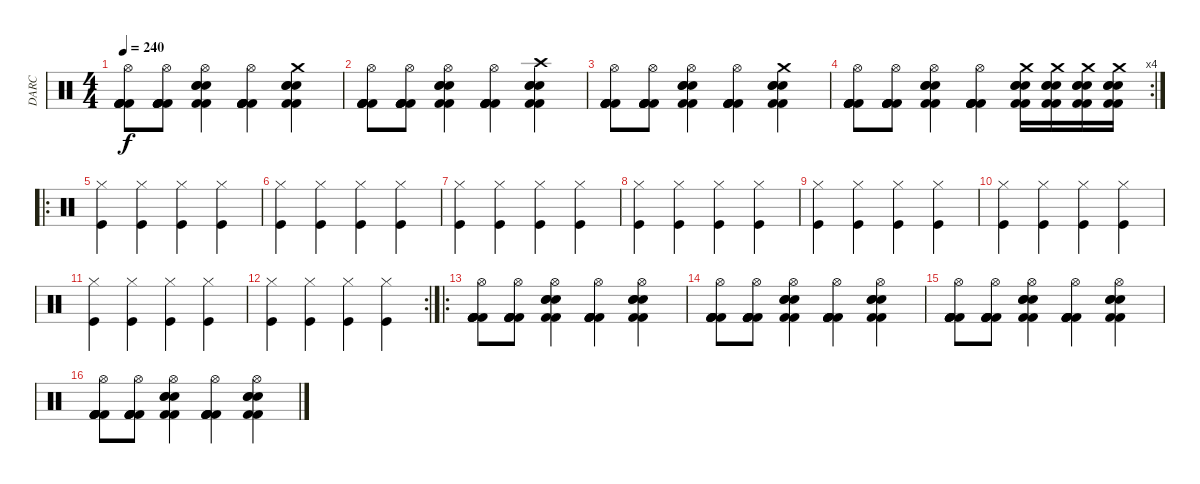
\track ("DARC" "DARC") {instrument percussion}
\staff {score}
\articulation defaults
\ts (4 4)
\tempo 240
\clef neutral
\ks c
("Hi-Hat (open)" "Kick (hit) 2" "Kick (hit) 2" "Kick (hit) 2" "Kick (hit) 2" "Kick (hit) 2").8{dy f} ("Hi-Hat (open)" "Kick (hit) 2" "Kick (hit) 2" "Kick (hit) 2" "Kick (hit) 2" "Kick (hit) 2").8 ("Hi-Hat (open)" "Electric Snare (hit)" "Electric Snare (hit)" "Kick (hit) 2" "Kick (hit) 2" "Electric Snare (hit)").4 ("Hi-Hat (open)" "Kick (hit) 2" "Kick (hit) 2" "Kick (hit) 2" "Kick (hit) 2" "Kick (hit) 2").4 ("Crash medium (hit)" "Electric Snare (hit)" "Electric Snare (hit)" "Kick (hit) 2" "Kick (hit) 2" "Electric Snare (hit)").4 |
("Hi-Hat (open)" "Kick (hit) 2" "Kick (hit) 2" "Kick (hit) 2" "Kick (hit) 2" "Kick (hit) 2").8 ("Hi-Hat (open)" "Kick (hit) 2" "Kick (hit) 2" "Kick (hit) 2" "Kick (hit) 2" "Kick (hit) 2").8 ("Hi-Hat (open)" "Electric Snare (hit)" "Electric Snare (hit)" "Kick (hit) 2" "Kick (hit) 2" "Electric Snare (hit)").4 ("Hi-Hat (open)" "Kick (hit) 2" "Kick (hit) 2" "Kick (hit) 2" "Kick (hit) 2" "Kick (hit) 2").4 ("Crash high (hit)" "Electric Snare (hit)" "Electric Snare (hit)" "Kick (hit) 2" "Kick (hit) 2" "Electric Snare (hit)").4 |
("Hi-Hat (open)" "Kick (hit) 2" "Kick (hit) 2" "Kick (hit) 2" "Kick (hit) 2" "Kick (hit) 2").8 ("Hi-Hat (open)" "Kick (hit) 2" "Kick (hit) 2" "Kick (hit) 2" "Kick (hit) 2" "Kick (hit) 2").8 ("Hi-Hat (open)" "Electric Snare (hit)" "Electric Snare (hit)" "Kick (hit) 2" "Kick (hit) 2" "Electric Snare (hit)").4 ("Hi-Hat (open)" "Kick (hit) 2" "Kick (hit) 2" "Kick (hit) 2" "Kick (hit) 2" "Kick (hit) 2").4 ("Crash medium (hit)" "Electric Snare (hit)" "Electric Snare (hit)" "Kick (hit) 2" "Kick (hit) 2" "Electric Snare (hit)").4 |
\rc 4
("Hi-Hat (open)" "Kick (hit) 2" "Kick (hit) 2" "Kick (hit) 2" "Kick (hit) 2" "Kick (hit) 2").8 ("Hi-Hat (open)" "Kick (hit) 2" "Kick (hit) 2" "Kick (hit) 2" "Kick (hit) 2" "Kick (hit) 2").8 ("Hi-Hat (open)" "Electric Snare (hit)" "Electric Snare (hit)" "Kick (hit) 2" "Kick (hit) 2" "Electric Snare (hit)").4 ("Hi-Hat (open)" "Kick (hit) 2" "Kick (hit) 2" "Kick (hit) 2" "Kick (hit) 2" "Kick (hit) 2").4 ("Crash medium (hit)" "Electric Snare (hit)" "Electric Snare (hit)" "Kick (hit) 2" "Kick (hit) 2" "Electric Snare (hit)").16 ("Crash medium (hit)" "Electric Snare (hit)" "Electric Snare (hit)" "Kick (hit) 2" "Kick (hit) 2" "Electric Snare (hit)").16 ("Crash medium (hit)" "Electric Snare (hit)" "Electric Snare (hit)" "Kick (hit) 2" "Kick (hit) 2" "Electric Snare (hit)").16 ("Crash medium (hit)" "Electric Snare (hit)" "Electric Snare (hit)" "Kick (hit) 2" "Kick (hit) 2" "Electric Snare (hit)").16 |
\ro
("Kick (hit)" "Hi-Hat (closed)").4 ("Kick (hit)" "Hi-Hat (closed)").4 ("Kick (hit)" "Hi-Hat (closed)").4 ("Kick (hit)" "Hi-Hat (closed)").4 |
("Kick (hit)" "Hi-Hat (closed)").4 ("Kick (hit)" "Hi-Hat (closed)").4 ("Kick (hit)" "Hi-Hat (closed)").4 ("Kick (hit)" "Hi-Hat (closed)").4 |
("Kick (hit)" "Hi-Hat (closed)").4 ("Kick (hit)" "Hi-Hat (closed)").4 ("Kick (hit)" "Hi-Hat (closed)").4 ("Kick (hit)" "Hi-Hat (closed)").4 |
("Kick (hit)" "Hi-Hat (closed)").4 ("Kick (hit)" "Hi-Hat (closed)").4 ("Kick (hit)" "Hi-Hat (closed)").4 ("Kick (hit)" "Hi-Hat (closed)").4 |
("Kick (hit)" "Hi-Hat (closed)").4 ("Kick (hit)" "Hi-Hat (closed)").4 ("Kick (hit)" "Hi-Hat (closed)").4 ("Kick (hit)" "Hi-Hat (closed)").4 |
("Kick (hit)" "Hi-Hat (closed)").4 ("Kick (hit)" "Hi-Hat (closed)").4 ("Kick (hit)" "Hi-Hat (closed)").4 ("Kick (hit)" "Hi-Hat (closed)").4 |
("Kick (hit)" "Hi-Hat (closed)").4 ("Kick (hit)" "Hi-Hat (closed)").4 ("Kick (hit)" "Hi-Hat (closed)").4 ("Kick (hit)" "Hi-Hat (closed)").4 |
\rc 2
("Kick (hit)" "Hi-Hat (closed)").4 ("Kick (hit)" "Hi-Hat (closed)").4 ("Kick (hit)" "Hi-Hat (closed)").4 ("Kick (hit)" "Hi-Hat (closed)").4 |
\ro
("Hi-Hat (open)" "Kick (hit) 2" "Kick (hit) 2" "Kick (hit) 2" "Kick (hit) 2" "Kick (hit) 2").8 ("Hi-Hat (open)" "Kick (hit) 2" "Kick (hit) 2" "Kick (hit) 2" "Kick (hit) 2" "Kick (hit) 2").8 ("Hi-Hat (open)" "Electric Snare (hit)" "Electric Snare (hit)" "Kick (hit) 2" "Kick (hit) 2" "Electric Snare (hit)").4 ("Hi-Hat (open)" "Kick (hit) 2" "Kick (hit) 2" "Kick (hit) 2" "Kick (hit) 2" "Kick (hit) 2").4 ("Hi-Hat (open)" "Electric Snare (hit)" "Electric Snare (hit)" "Kick (hit) 2" "Kick (hit) 2" "Electric Snare (hit)").4 |
("Hi-Hat (open)" "Kick (hit) 2" "Kick (hit) 2" "Kick (hit) 2" "Kick (hit) 2" "Kick (hit) 2").8 ("Hi-Hat (open)" "Kick (hit) 2" "Kick (hit) 2" "Kick (hit) 2" "Kick (hit) 2" "Kick (hit) 2").8 ("Hi-Hat (open)" "Electric Snare (hit)" "Electric Snare (hit)" "Kick (hit) 2" "Kick (hit) 2" "Electric Snare (hit)").4 ("Hi-Hat (open)" "Kick (hit) 2" "Kick (hit) 2" "Kick (hit) 2" "Kick (hit) 2" "Kick (hit) 2").4 ("Hi-Hat (open)" "Electric Snare (hit)" "Electric Snare (hit)" "Kick (hit) 2" "Kick (hit) 2" "Electric Snare (hit)").4 |
("Hi-Hat (open)" "Kick (hit) 2" "Kick (hit) 2" "Kick (hit) 2" "Kick (hit) 2" "Kick (hit) 2").8 ("Hi-Hat (open)" "Kick (hit) 2" "Kick (hit) 2" "Kick (hit) 2" "Kick (hit) 2" "Kick (hit) 2").8 ("Hi-Hat (open)" "Electric Snare (hit)" "Electric Snare (hit)" "Kick (hit) 2" "Kick (hit) 2" "Electric Snare (hit)").4 ("Hi-Hat (open)" "Kick (hit) 2" "Kick (hit) 2" "Kick (hit) 2" "Kick (hit) 2" "Kick (hit) 2").4 ("Hi-Hat (open)" "Electric Snare (hit)" "Electric Snare (hit)" "Kick (hit) 2" "Kick (hit) 2" "Electric Snare (hit)").4 |
("Hi-Hat (open)" "Kick (hit) 2" "Kick (hit) 2" "Kick (hit) 2" "Kick (hit) 2" "Kick (hit) 2").8 ("Hi-Hat (open)" "Kick (hit) 2" "Kick (hit) 2" "Kick (hit) 2" "Kick (hit) 2" "Kick (hit) 2").8 ("Hi-Hat (open)" "Electric Snare (hit)" "Electric Snare (hit)" "Kick (hit) 2" "Kick (hit) 2" "Electric Snare (hit)").4 ("Hi-Hat (open)" "Kick (hit) 2" "Kick (hit) 2" "Kick (hit) 2" "Kick (hit) 2" "Kick (hit) 2").4 ("Hi-Hat (open)" "Electric Snare (hit)" "Electric Snare (hit)" "Kick (hit) 2" "Kick (hit) 2" "Electric Snare (hit)").4
